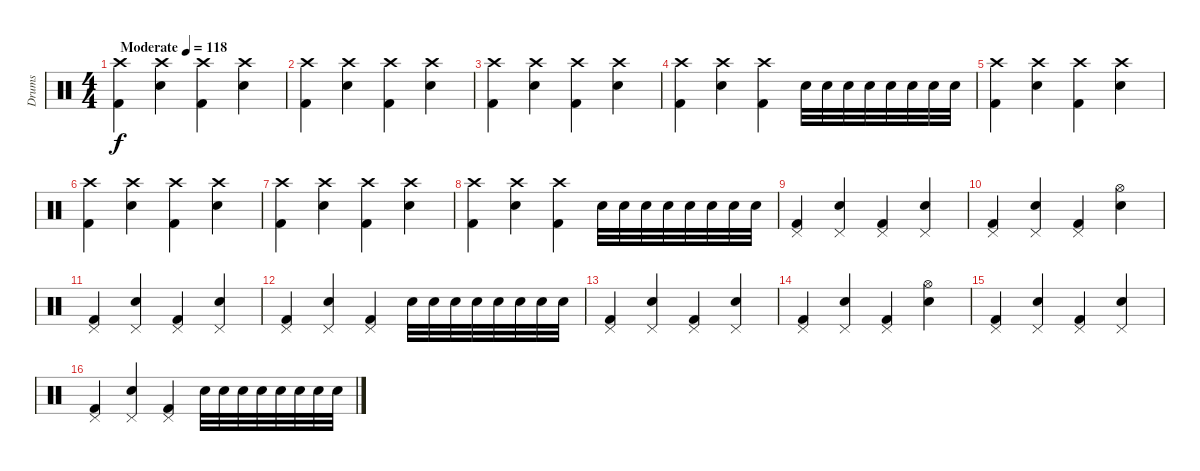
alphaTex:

\track ("Drums" "Drums") {instrument percussion}
\staff {score}
\articulation defaults
\ts (4 4)
\tempo (118 "Moderate")
\clef neutral
\ks c
("Crash high (hit)" "Kick (hit) 2").4{dy f} ("Crash high (hit)" "Snare (hit) 2").4 ("Crash high (hit)" "Kick (hit) 2").4 ("Crash high (hit)" "Snare (hit) 2").4 |
("Crash high (hit)" "Kick (hit) 2").4 ("Crash high (hit)" "Snare (hit) 2").4 ("Crash high (hit)" "Kick (hit) 2").4 ("Crash high (hit)" "Snare (hit) 2").4 |
("Crash high (hit)" "Kick (hit) 2").4 ("Crash high (hit)" "Snare (hit) 2").4 ("Crash high (hit)" "Kick (hit) 2").4 ("Crash high (hit)" "Snare (hit) 2").4 |
("Crash high (hit)" "Kick (hit) 2").4 ("Crash high (hit)" "Snare (hit) 2").4 ("Crash high (hit)" "Kick (hit) 2").4 "Snare (hit) 2".32 "Snare (hit) 2".32 "Snare (hit) 2".32 "Snare (hit) 2".32 "Snare (hit) 2".32 "Snare (hit) 2".32 "Snare (hit) 2".32 "Snare (hit) 2".32 |
("Crash high (hit)" "Kick (hit) 2").4 ("Crash high (hit)" "Snare (hit) 2").4 ("Crash high (hit)" "Kick (hit) 2").4 ("Crash high (hit)" "Snare (hit) 2").4 |
("Crash high (hit)" "Kick (hit) 2").4 ("Crash high (hit)" "Snare (hit) 2").4 ("Crash high (hit)" "Kick (hit) 2").4 ("Crash high (hit)" "Snare (hit) 2").4 |
("Crash high (hit)" "Kick (hit) 2").4 ("Crash high (hit)" "Snare (hit) 2").4 ("Crash high (hit)" "Kick (hit) 2").4 ("Crash high (hit)" "Snare (hit) 2").4 |
("Crash high (hit)" "Kick (hit) 2").4 ("Crash high (hit)" "Snare (hit) 2").4 ("Crash high (hit)" "Kick (hit) 2").4 "Snare (hit) 2".32 "Snare (hit) 2".32 "Snare (hit) 2".32 "Snare (hit) 2".32 "Snare (hit) 2".32 "Snare (hit) 2".32 "Snare (hit) 2".32 "Snare (hit) 2".32 |
("Pedal Hi-Hat (hit)" "Kick (hit) 2").4 ("Pedal Hi-Hat (hit)" "Snare (hit) 2").4 ("Pedal Hi-Hat (hit)" "Kick (hit) 2").4 ("Pedal Hi-Hat (hit)" "Snare (hit) 2").4 |
("Pedal Hi-Hat (hit)" "Kick (hit) 2").4 ("Pedal Hi-Hat (hit)" "Snare (hit) 2").4 ("Pedal Hi-Hat (hit)" "Kick (hit) 2").4 ("Hi-Hat (open)" "Snare (hit) 2").4 |
("Pedal Hi-Hat (hit)" "Kick (hit) 2").4 ("Pedal Hi-Hat (hit)" "Snare (hit) 2").4 ("Pedal Hi-Hat (hit)" "Kick (hit) 2").4 ("Pedal Hi-Hat (hit)" "Snare (hit) 2").4 |
("Pedal Hi-Hat (hit)" "Kick (hit) 2").4 ("Pedal Hi-Hat (hit)" "Snare (hit) 2").4 ("Pedal Hi-Hat (hit)" "Kick (hit) 2").4 "Snare (hit) 2".32 "Snare (hit) 2".32 "Snare (hit) 2".32 "Snare (hit) 2".32 "Snare (hit) 2".32 "Snare (hit) 2".32 "Snare (hit) 2".32 "Snare (hit) 2".32 |
("Pedal Hi-Hat (hit)" "Kick (hit) 2").4 ("Pedal Hi-Hat (hit)" "Snare (hit) 2").4 ("Pedal Hi-Hat (hit)" "Kick (hit) 2").4 ("Pedal Hi-Hat (hit)" "Snare (hit) 2").4 |
("Pedal Hi-Hat (hit)" "Kick (hit) 2").4 ("Pedal Hi-Hat (hit)" "Snare (hit) 2").4 ("Pedal Hi-Hat (hit)" "Kick (hit) 2").4 ("Hi-Hat (open)" "Snare (hit) 2").4 |
("Pedal Hi-Hat (hit)" "Kick (hit) 2").4 ("Pedal Hi-Hat (hit)" "Snare (hit) 2").4 ("Pedal Hi-Hat (hit)" "Kick (hit) 2").4 ("Pedal Hi-Hat (hit)" "Snare (hit) 2").4 |
("Pedal Hi-Hat (hit)" "Kick (hit) 2").4 ("Pedal Hi-Hat (hit)" "Snare (hit) 2").4 ("Pedal Hi-Hat (hit)" "Kick (hit) 2").4 "Snare (hit) 2".32 "Snare (hit) 2".32 "Snare (hit) 2".32 "Snare (hit) 2".32 "Snare (hit) 2".32 "Snare (hit) 2".32 "Snare (hit) 2".32 "Snare (hit) 2".32
